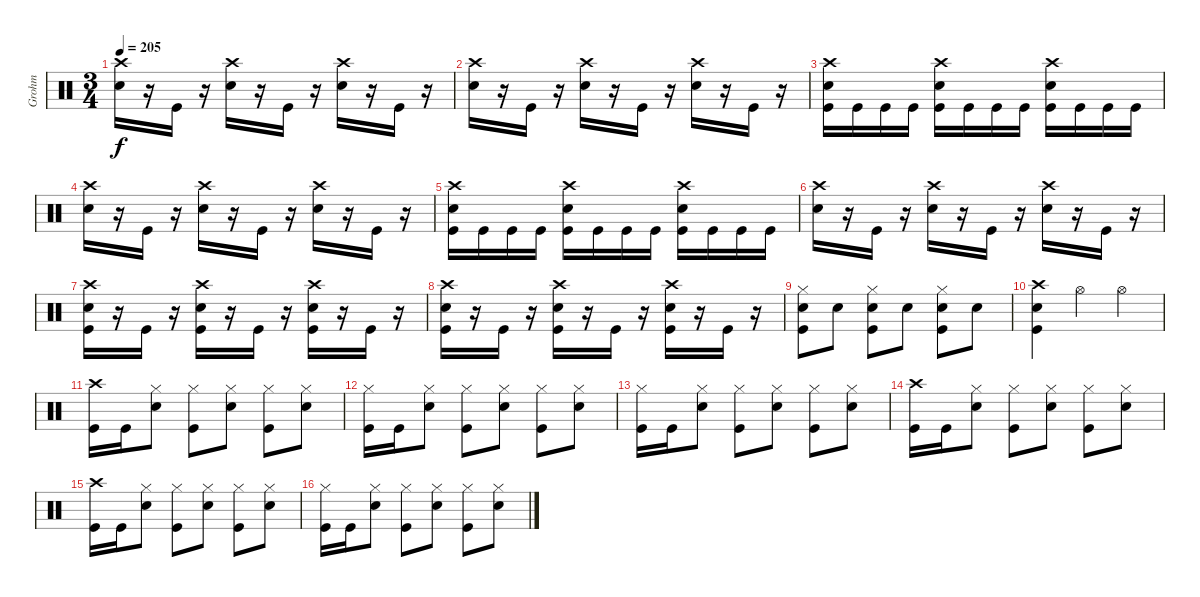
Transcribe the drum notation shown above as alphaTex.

\track ("Grohm" "Grohm") {instrument percussion}
\staff {score}
\articulation defaults
\ts (3 4)
\tempo 205
\clef neutral
\ks c
("Crash high (hit)" "Snare (hit) 2").16{dy f} r.16 "Kick (hit)".16 r.16 ("Crash high (hit)" "Snare (hit) 2").16 r.16 "Kick (hit)".16 r.16 ("Crash high (hit)" "Snare (hit) 2").16 r.16 "Kick (hit)".16 r.16 |
("Crash high (hit)" "Snare (hit) 2").16 r.16 "Kick (hit)".16 r.16 ("Crash high (hit)" "Snare (hit) 2").16 r.16 "Kick (hit)".16 r.16 ("Crash high (hit)" "Snare (hit) 2").16 r.16 "Kick (hit)".16 r.16 |
("Crash high (hit)" "Snare (hit) 2" "Kick (hit)").16 "Kick (hit)".16 "Kick (hit)".16 "Kick (hit)".16 ("Crash high (hit)" "Snare (hit) 2" "Kick (hit)").16 "Kick (hit)".16 "Kick (hit)".16 "Kick (hit)".16 ("Crash high (hit)" "Snare (hit) 2" "Kick (hit)").16 "Kick (hit)".16 "Kick (hit)".16 "Kick (hit)".16 |
("Crash high (hit)" "Snare (hit) 2").16 r.16 "Kick (hit)".16 r.16 ("Crash high (hit)" "Snare (hit) 2").16 r.16 "Kick (hit)".16 r.16 ("Crash high (hit)" "Snare (hit) 2").16 r.16 "Kick (hit)".16 r.16 |
("Crash high (hit)" "Snare (hit) 2" "Kick (hit)").16 "Kick (hit)".16 "Kick (hit)".16 "Kick (hit)".16 ("Crash high (hit)" "Snare (hit) 2" "Kick (hit)").16 "Kick (hit)".16 "Kick (hit)".16 "Kick (hit)".16 ("Crash high (hit)" "Snare (hit) 2" "Kick (hit)").16 "Kick (hit)".16 "Kick (hit)".16 "Kick (hit)".16 |
("Crash high (hit)" "Snare (hit) 2").16 r.16 "Kick (hit)".16 r.16 ("Crash high (hit)" "Snare (hit) 2").16 r.16 "Kick (hit)".16 r.16 ("Crash high (hit)" "Snare (hit) 2").16 r.16 "Kick (hit)".16 r.16 |
("Crash high (hit)" "Snare (hit) 2" "Kick (hit)").16 r.16 "Kick (hit)".16 r.16 ("Crash high (hit)" "Snare (hit) 2" "Kick (hit)").16 r.16 "Kick (hit)".16 r.16 ("Crash high (hit)" "Snare (hit) 2" "Kick (hit)").16 r.16 "Kick (hit)".16 r.16 |
("Crash high (hit)" "Snare (hit) 2" "Kick (hit)").16 r.16 "Kick (hit)".16 r.16 ("Crash high (hit)" "Snare (hit) 2" "Kick (hit)").16 r.16 "Kick (hit)".16 r.16 ("Crash high (hit)" "Snare (hit) 2" "Kick (hit)").16 r.16 "Kick (hit)".16 r.16 |
("Hi-Hat (closed)" "Snare (hit) 2" "Kick (hit)").8 "Snare (hit) 2".8 ("Hi-Hat (closed)" "Snare (hit) 2" "Kick (hit)").8 "Snare (hit) 2".8 ("Hi-Hat (closed)" "Snare (hit) 2" "Kick (hit)").8 "Snare (hit) 2".8 |
("Crash high (hit)" "Snare (hit) 2" "Kick (hit)").4 "Hi-Hat (open)".4 "Hi-Hat (open)".4 |
("Crash high (hit)" "Kick (hit)").16 "Kick (hit)".16 ("Hi-Hat (closed)" "Snare (hit) 2").8 ("Hi-Hat (closed)" "Kick (hit)").8 ("Hi-Hat (closed)" "Snare (hit) 2").8 ("Hi-Hat (closed)" "Kick (hit)").8 ("Hi-Hat (closed)" "Snare (hit) 2").8 |
("Hi-Hat (closed)" "Kick (hit)").16 "Kick (hit)".16 ("Hi-Hat (closed)" "Snare (hit) 2").8 ("Hi-Hat (closed)" "Kick (hit)").8 ("Hi-Hat (closed)" "Snare (hit) 2").8 ("Hi-Hat (closed)" "Kick (hit)").8 ("Hi-Hat (closed)" "Snare (hit) 2").8 |
("Hi-Hat (closed)" "Kick (hit)").16 "Kick (hit)".16 ("Hi-Hat (closed)" "Snare (hit) 2").8 ("Hi-Hat (closed)" "Kick (hit)").8 ("Hi-Hat (closed)" "Snare (hit) 2").8 ("Hi-Hat (closed)" "Kick (hit)").8 ("Hi-Hat (closed)" "Snare (hit) 2").8 |
("Crash high (hit)" "Kick (hit)").16 "Kick (hit)".16 ("Hi-Hat (closed)" "Snare (hit) 2").8 ("Hi-Hat (closed)" "Kick (hit)").8 ("Hi-Hat (closed)" "Snare (hit) 2").8 ("Hi-Hat (closed)" "Kick (hit)").8 ("Hi-Hat (closed)" "Snare (hit) 2").8 |
("Crash high (hit)" "Kick (hit)").16 "Kick (hit)".16 ("Hi-Hat (closed)" "Snare (hit) 2").8 ("Hi-Hat (closed)" "Kick (hit)").8 ("Hi-Hat (closed)" "Snare (hit) 2").8 ("Hi-Hat (closed)" "Kick (hit)").8 ("Hi-Hat (closed)" "Snare (hit) 2").8 |
("Hi-Hat (closed)" "Kick (hit)").16 "Kick (hit)".16 ("Hi-Hat (closed)" "Snare (hit) 2").8 ("Hi-Hat (closed)" "Kick (hit)").8 ("Hi-Hat (closed)" "Snare (hit) 2").8 ("Hi-Hat (closed)" "Kick (hit)").8 ("Hi-Hat (closed)" "Snare (hit) 2").8
